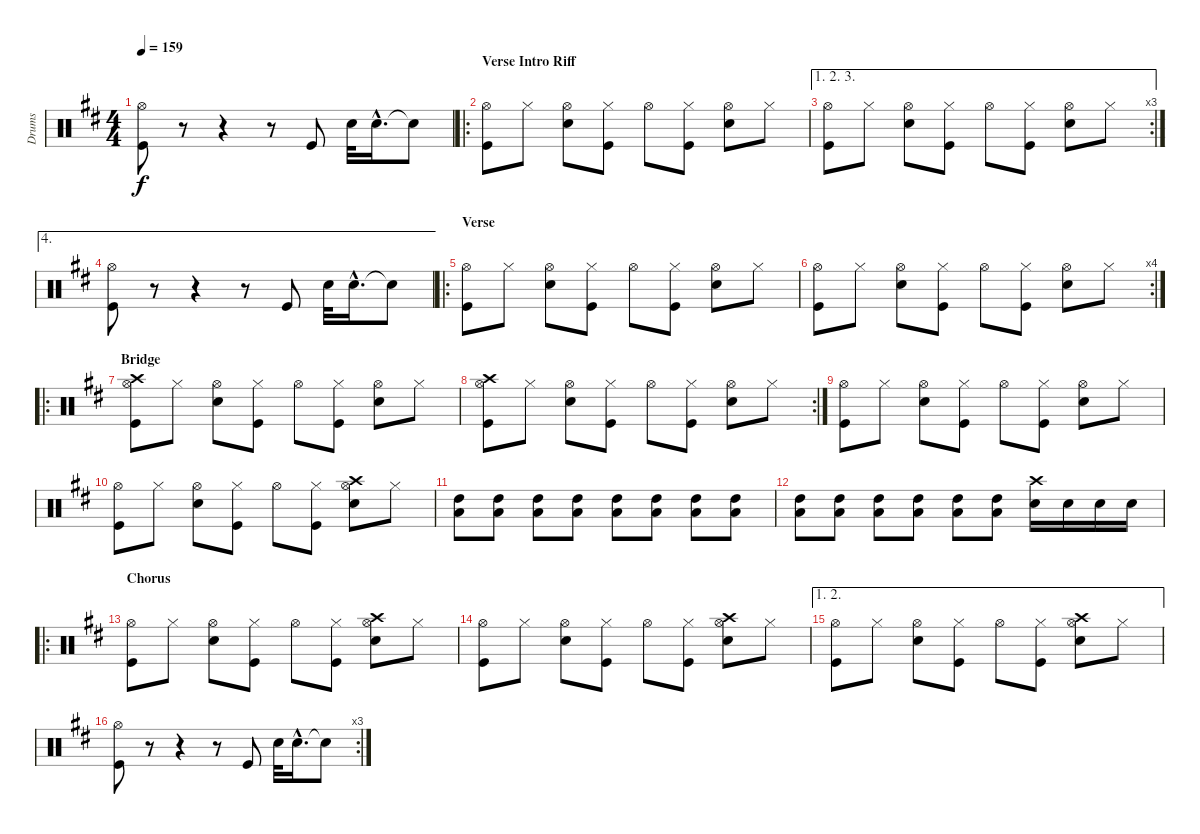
\track ("Drums" "Drums") {instrument percussion}
\staff {score}
\articulation defaults
\ts (4 4)
\tempo 159
\clef neutral
\ks d
("Hi-Hat (open)" "Kick (hit)").8{dy f} r.8 r.4 r.8 "Kick (hit)".8 "Snare (hit) 2".32 "Snare (hit) 2"{hac}.16{d} "Snare (hit)"{t}.8 |
\ro
\section ("" "Verse Intro Riff")
("Hi-Hat (open)" "Kick (hit)").8 "Hi-Hat (closed)".8 ("Hi-Hat (open)" "Snare (hit) 2").8 ("Hi-Hat (closed)" "Kick (hit)").8 "Hi-Hat (open)".8 ("Hi-Hat (closed)" "Kick (hit)").8 ("Hi-Hat (open)" "Snare (hit) 2").8 "Hi-Hat (closed)".8 |
\ae (1 2 3)
\rc 3
("Hi-Hat (open)" "Kick (hit)").8 "Hi-Hat (closed)".8 ("Hi-Hat (open)" "Snare (hit) 2").8 ("Hi-Hat (closed)" "Kick (hit)").8 "Hi-Hat (open)".8 ("Hi-Hat (closed)" "Kick (hit)").8 ("Hi-Hat (open)" "Snare (hit) 2").8 "Hi-Hat (closed)".8 |
\ae 4
("Hi-Hat (open)" "Kick (hit)").8 r.8 r.4 r.8 "Kick (hit)".8 "Snare (hit) 2".32 "Snare (hit) 2"{hac}.16{d} "Snare (hit)"{t}.8 |
\ro
\section ("" "Verse")
("Hi-Hat (open)" "Kick (hit)").8 "Hi-Hat (closed)".8 ("Hi-Hat (open)" "Snare (hit) 2").8 ("Hi-Hat (closed)" "Kick (hit)").8 "Hi-Hat (open)".8 ("Hi-Hat (closed)" "Kick (hit)").8 ("Hi-Hat (open)" "Snare (hit) 2").8 "Hi-Hat (closed)".8 |
\rc 4
("Hi-Hat (open)" "Kick (hit)").8 "Hi-Hat (closed)".8 ("Hi-Hat (open)" "Snare (hit) 2").8 ("Hi-Hat (closed)" "Kick (hit)").8 "Hi-Hat (open)".8 ("Hi-Hat (closed)" "Kick (hit)").8 ("Hi-Hat (open)" "Snare (hit) 2").8 "Hi-Hat (closed)".8 |
\ro
\section ("" "Bridge")
("Hi-Hat (open)" "Kick (hit)" "Crash high (hit)").8 "Hi-Hat (closed)".8 ("Hi-Hat (open)" "Snare (hit) 2").8 ("Hi-Hat (closed)" "Kick (hit)").8 "Hi-Hat (open)".8 ("Hi-Hat (closed)" "Kick (hit)").8 ("Hi-Hat (open)" "Snare (hit) 2").8 "Hi-Hat (closed)".8 |
\rc 2
("Hi-Hat (open)" "Kick (hit)" "Crash high (hit)").8 "Hi-Hat (closed)".8 ("Hi-Hat (open)" "Snare (hit) 2").8 ("Hi-Hat (closed)" "Kick (hit)").8 "Hi-Hat (open)".8 ("Hi-Hat (closed)" "Kick (hit)").8 ("Hi-Hat (open)" "Snare (hit) 2").8 "Hi-Hat (closed)".8 |
("Hi-Hat (open)" "Kick (hit)").8 "Hi-Hat (closed)".8 ("Hi-Hat (open)" "Snare (hit) 2").8 ("Hi-Hat (closed)" "Kick (hit)").8 "Hi-Hat (open)".8 ("Hi-Hat (closed)" "Kick (hit)").8 ("Hi-Hat (open)" "Snare (hit) 2").8 "Hi-Hat (closed)".8 |
("Hi-Hat (open)" "Kick (hit)").8 "Hi-Hat (closed)".8 ("Hi-Hat (open)" "Snare (hit) 2").8 ("Hi-Hat (closed)" "Kick (hit)").8 "Hi-Hat (open)".8 ("Hi-Hat (closed)" "Kick (hit)").8 ("Hi-Hat (open)" "Snare (hit) 2" "Crash high (hit)").8 "Hi-Hat (closed)".8 |
("Low Floor Tom (hit)" "High Tom (hit)").8 ("Low Floor Tom (hit)" "High Tom (hit)").8 ("Low Floor Tom (hit)" "High Tom (hit)").8 ("Low Floor Tom (hit)" "High Tom (hit)").8 ("Low Floor Tom (hit)" "High Tom (hit)").8 ("Low Floor Tom (hit)" "High Tom (hit)").8 ("Low Floor Tom (hit)" "High Tom (hit)").8 ("Low Floor Tom (hit)" "High Tom (hit)").8 |
("Low Floor Tom (hit)" "High Tom (hit)").8 ("Low Floor Tom (hit)" "High Tom (hit)").8 ("Low Floor Tom (hit)" "High Tom (hit)").8 ("Low Floor Tom (hit)" "High Tom (hit)").8 ("Low Floor Tom (hit)" "High Tom (hit)").8 ("Low Floor Tom (hit)" "High Tom (hit)").8 ("Snare (hit) 2" "Crash high (hit)").16 "Snare (hit) 2".16 "Snare (hit) 2".16 "Snare (hit) 2".16 |
\ro
\section ("" "Chorus")
("Hi-Hat (open)" "Kick (hit)").8 "Hi-Hat (closed)".8 ("Hi-Hat (open)" "Snare (hit) 2").8 ("Hi-Hat (closed)" "Kick (hit)").8 "Hi-Hat (open)".8 ("Hi-Hat (closed)" "Kick (hit)").8 ("Hi-Hat (open)" "Snare (hit) 2" "Crash high (hit)").8 "Hi-Hat (closed)".8 |
("Hi-Hat (open)" "Kick (hit)").8 "Hi-Hat (closed)".8 ("Hi-Hat (open)" "Snare (hit) 2").8 ("Hi-Hat (closed)" "Kick (hit)").8 "Hi-Hat (open)".8 ("Hi-Hat (closed)" "Kick (hit)").8 ("Hi-Hat (open)" "Snare (hit) 2" "Crash high (hit)").8 "Hi-Hat (closed)".8 |
\ae (1 2)
("Hi-Hat (open)" "Kick (hit)").8 "Hi-Hat (closed)".8 ("Hi-Hat (open)" "Snare (hit) 2").8 ("Hi-Hat (closed)" "Kick (hit)").8 "Hi-Hat (open)".8 ("Hi-Hat (closed)" "Kick (hit)").8 ("Hi-Hat (open)" "Snare (hit) 2" "Crash high (hit)").8 "Hi-Hat (closed)".8 |
\rc 3
("Hi-Hat (open)" "Kick (hit)").8 r.8 r.4 r.8 "Kick (hit)".8 "Snare (hit) 2".32 "Snare (hit) 2"{hac}.16{d} "Snare (hit)"{t}.8
